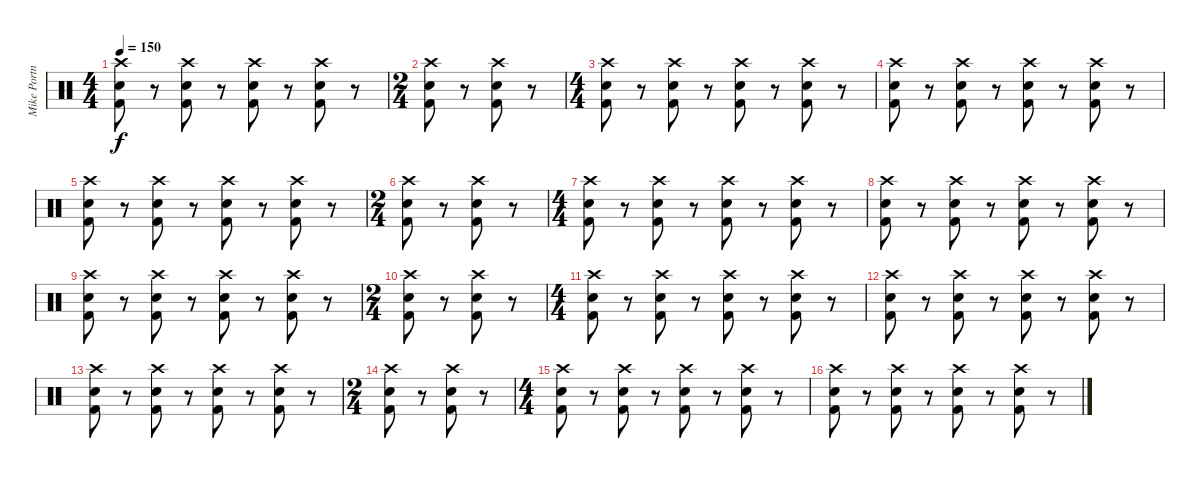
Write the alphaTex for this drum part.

\track ("Mike Portnoy" "Mike Portn") {instrument percussion}
\staff {score}
\articulation defaults
\ts (4 4)
\tempo 150
\clef neutral
\ks c
("Crash high (hit)" "Electric Snare (hit)" "Kick (hit) 2").8{dy f} r.8 ("Crash high (hit)" "Electric Snare (hit)" "Kick (hit) 2").8 r.8 ("Crash high (hit)" "Electric Snare (hit)" "Kick (hit) 2").8 r.8 ("Crash high (hit)" "Electric Snare (hit)" "Kick (hit) 2").8 r.8 |
\ts (2 4)
("Crash high (hit)" "Electric Snare (hit)" "Kick (hit) 2").8 r.8 ("Crash high (hit)" "Electric Snare (hit)" "Kick (hit) 2").8 r.8 |
\ts (4 4)
("Crash high (hit)" "Electric Snare (hit)" "Kick (hit) 2").8 r.8 ("Crash high (hit)" "Electric Snare (hit)" "Kick (hit) 2").8 r.8 ("Crash high (hit)" "Electric Snare (hit)" "Kick (hit) 2").8 r.8 ("Crash high (hit)" "Electric Snare (hit)" "Kick (hit) 2").8 r.8 |
("Crash high (hit)" "Electric Snare (hit)" "Kick (hit) 2").8 r.8 ("Crash high (hit)" "Electric Snare (hit)" "Kick (hit) 2").8 r.8 ("Crash high (hit)" "Electric Snare (hit)" "Kick (hit) 2").8 r.8 ("Crash high (hit)" "Electric Snare (hit)" "Kick (hit) 2").8 r.8 |
("Crash high (hit)" "Electric Snare (hit)" "Kick (hit) 2").8 r.8 ("Crash high (hit)" "Electric Snare (hit)" "Kick (hit) 2").8 r.8 ("Crash high (hit)" "Electric Snare (hit)" "Kick (hit) 2").8 r.8 ("Crash high (hit)" "Electric Snare (hit)" "Kick (hit) 2").8 r.8 |
\ts (2 4)
("Crash high (hit)" "Electric Snare (hit)" "Kick (hit) 2").8 r.8 ("Crash high (hit)" "Electric Snare (hit)" "Kick (hit) 2").8 r.8 |
\ts (4 4)
("Crash high (hit)" "Electric Snare (hit)" "Kick (hit) 2").8 r.8 ("Crash high (hit)" "Electric Snare (hit)" "Kick (hit) 2").8 r.8 ("Crash high (hit)" "Electric Snare (hit)" "Kick (hit) 2").8 r.8 ("Crash high (hit)" "Electric Snare (hit)" "Kick (hit) 2").8 r.8 |
("Crash high (hit)" "Electric Snare (hit)" "Kick (hit) 2").8 r.8 ("Crash high (hit)" "Electric Snare (hit)" "Kick (hit) 2").8 r.8 ("Crash high (hit)" "Electric Snare (hit)" "Kick (hit) 2").8 r.8 ("Crash high (hit)" "Electric Snare (hit)" "Kick (hit) 2").8 r.8 |
("Crash high (hit)" "Electric Snare (hit)" "Kick (hit) 2").8 r.8 ("Crash high (hit)" "Electric Snare (hit)" "Kick (hit) 2").8 r.8 ("Crash high (hit)" "Electric Snare (hit)" "Kick (hit) 2").8 r.8 ("Crash high (hit)" "Electric Snare (hit)" "Kick (hit) 2").8 r.8 |
\ts (2 4)
("Crash high (hit)" "Electric Snare (hit)" "Kick (hit) 2").8 r.8 ("Crash high (hit)" "Electric Snare (hit)" "Kick (hit) 2").8 r.8 |
\ts (4 4)
("Crash high (hit)" "Electric Snare (hit)" "Kick (hit) 2").8 r.8 ("Crash high (hit)" "Electric Snare (hit)" "Kick (hit) 2").8 r.8 ("Crash high (hit)" "Electric Snare (hit)" "Kick (hit) 2").8 r.8 ("Crash high (hit)" "Electric Snare (hit)" "Kick (hit) 2").8 r.8 |
("Crash high (hit)" "Electric Snare (hit)" "Kick (hit) 2").8 r.8 ("Crash high (hit)" "Electric Snare (hit)" "Kick (hit) 2").8 r.8 ("Crash high (hit)" "Electric Snare (hit)" "Kick (hit) 2").8 r.8 ("Crash high (hit)" "Electric Snare (hit)" "Kick (hit) 2").8 r.8 |
("Crash high (hit)" "Electric Snare (hit)" "Kick (hit) 2").8 r.8 ("Crash high (hit)" "Electric Snare (hit)" "Kick (hit) 2").8 r.8 ("Crash high (hit)" "Electric Snare (hit)" "Kick (hit) 2").8 r.8 ("Crash high (hit)" "Electric Snare (hit)" "Kick (hit) 2").8 r.8 |
\ts (2 4)
("Crash high (hit)" "Electric Snare (hit)" "Kick (hit) 2").8 r.8 ("Crash high (hit)" "Electric Snare (hit)" "Kick (hit) 2").8 r.8 |
\ts (4 4)
("Crash high (hit)" "Electric Snare (hit)" "Kick (hit) 2").8 r.8 ("Crash high (hit)" "Electric Snare (hit)" "Kick (hit) 2").8 r.8 ("Crash high (hit)" "Electric Snare (hit)" "Kick (hit) 2").8 r.8 ("Crash high (hit)" "Electric Snare (hit)" "Kick (hit) 2").8 r.8 |
("Crash high (hit)" "Electric Snare (hit)" "Kick (hit) 2").8 r.8 ("Crash high (hit)" "Electric Snare (hit)" "Kick (hit) 2").8 r.8 ("Crash high (hit)" "Electric Snare (hit)" "Kick (hit) 2").8 r.8 ("Crash high (hit)" "Electric Snare (hit)" "Kick (hit) 2").8 r.8
